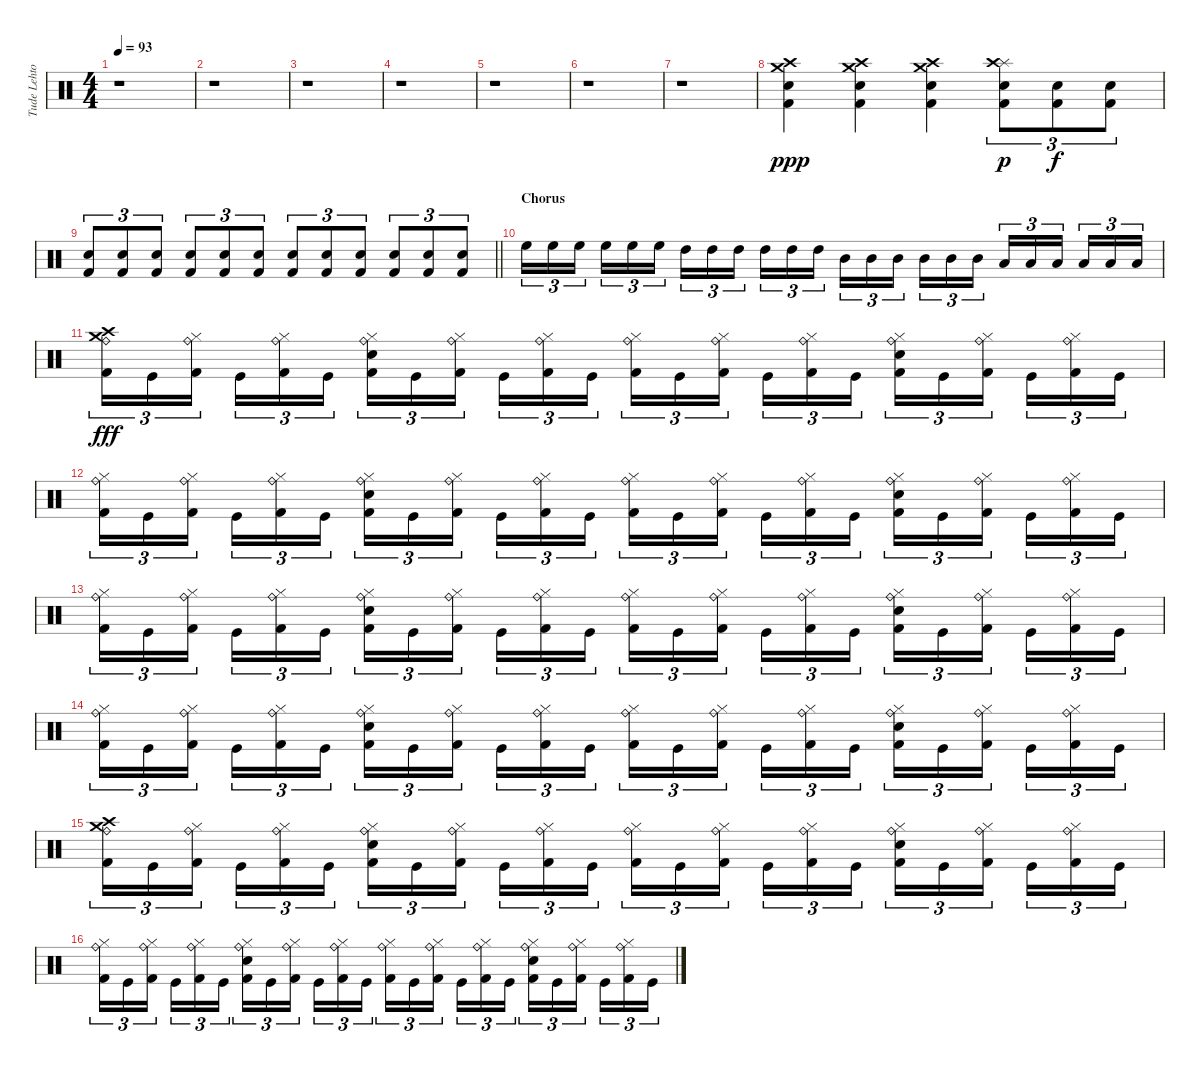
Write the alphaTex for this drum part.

\track ("Tude Lehtonen" "Tude Lehto") {instrument percussion}
\staff {score}
\articulation defaults
\ts (4 4)
\tempo 93
\clef neutral
\ks aminor
r.1{dy ppp} |
r.1 |
r.1 |
r.1 |
r.1 |
r.1 |
r.1 |
("Crash medium (hit)" "Crash high (hit)" "Electric Snare (hit)" "Kick (hit) 2").4 ("Crash medium (hit)" "Crash high (hit)" "Electric Snare (hit)" "Kick (hit) 2").4 ("Crash medium (hit)" "Crash high (hit)" "Electric Snare (hit)" "Kick (hit) 2").4 ("Splash (hit)" "Crash high (hit)" "Electric Snare (hit)" "Kick (hit) 2").8{tu (3 2) dy p} ("Electric Snare (hit)" "Kick (hit) 2").8{tu (3 2) dy f} ("Electric Snare (hit)" "Kick (hit) 2").8{tu (3 2)} |
\barLineRight lightlight
("Electric Snare (hit)" "Kick (hit) 2").8{tu (3 2)} ("Electric Snare (hit)" "Kick (hit) 2").8{tu (3 2)} ("Electric Snare (hit)" "Kick (hit) 2").8{tu (3 2)} ("Electric Snare (hit)" "Kick (hit) 2").8{tu (3 2)} ("Electric Snare (hit)" "Kick (hit) 2").8{tu (3 2)} ("Electric Snare (hit)" "Kick (hit) 2").8{tu (3 2)} ("Electric Snare (hit)" "Kick (hit) 2").8{tu (3 2)} ("Electric Snare (hit)" "Kick (hit) 2").8{tu (3 2)} ("Electric Snare (hit)" "Kick (hit) 2").8{tu (3 2)} ("Electric Snare (hit)" "Kick (hit) 2").8{tu (3 2)} ("Electric Snare (hit)" "Kick (hit) 2").8{tu (3 2)} ("Electric Snare (hit)" "Kick (hit) 2").8{tu (3 2)} |
\section ("" "Chorus")
"High Floor Tom (hit)".16{tu (3 2)} "High Floor Tom (hit)".16{tu (3 2)} "High Floor Tom (hit)".16{tu (3 2)} "High Floor Tom (hit)".16{tu (3 2)} "High Floor Tom (hit)".16{tu (3 2)} "High Floor Tom (hit)".16{tu (3 2)} "High Tom (hit)".16{tu (3 2)} "High Tom (hit)".16{tu (3 2)} "High Tom (hit)".16{tu (3 2)} "High Tom (hit)".16{tu (3 2)} "High Tom (hit)".16{tu (3 2)} "High Tom (hit)".16{tu (3 2)} "Mid Tom (hit)".16{tu (3 2)} "Mid Tom (hit)".16{tu (3 2)} "Mid Tom (hit)".16{tu (3 2)} "Mid Tom (hit)".16{tu (3 2)} "Mid Tom (hit)".16{tu (3 2)} "Mid Tom (hit)".16{tu (3 2)} "Low Tom (hit)".16{tu (3 2)} "Low Tom (hit)".16{tu (3 2)} "Low Tom (hit)".16{tu (3 2)} "Low Tom (hit)".16{tu (3 2)} "Low Tom (hit)".16{tu (3 2)} "Low Tom (hit)".16{tu (3 2)} |
("Crash high (hit)" "Crash medium (hit)" "Ride (bell)" "Kick (hit) 2").16{tu (3 2) dy fff} "Kick (hit)".16{tu (3 2)} ("Hi-Hat (closed)" "Ride (bell)" "Kick (hit) 2").16{tu (3 2)} "Kick (hit)".16{tu (3 2)} ("Hi-Hat (closed)" "Ride (bell)" "Kick (hit) 2").16{tu (3 2)} "Kick (hit)".16{tu (3 2)} ("Hi-Hat (closed)" "Ride (bell)" "Electric Snare (hit)" "Kick (hit) 2").16{tu (3 2)} "Kick (hit)".16{tu (3 2)} ("Hi-Hat (closed)" "Ride (bell)" "Kick (hit) 2").16{tu (3 2)} "Kick (hit)".16{tu (3 2)} ("Hi-Hat (closed)" "Ride (bell)" "Kick (hit) 2").16{tu (3 2)} "Kick (hit)".16{tu (3 2)} ("Hi-Hat (closed)" "Ride (bell)" "Kick (hit) 2").16{tu (3 2)} "Kick (hit)".16{tu (3 2)} ("Hi-Hat (closed)" "Ride (bell)" "Kick (hit) 2").16{tu (3 2)} "Kick (hit)".16{tu (3 2)} ("Hi-Hat (closed)" "Ride (bell)" "Kick (hit) 2").16{tu (3 2)} "Kick (hit)".16{tu (3 2)} ("Hi-Hat (closed)" "Ride (bell)" "Electric Snare (hit)" "Kick (hit) 2").16{tu (3 2)} "Kick (hit)".16{tu (3 2)} ("Hi-Hat (closed)" "Ride (bell)" "Kick (hit) 2").16{tu (3 2)} "Kick (hit)".16{tu (3 2)} ("Hi-Hat (closed)" "Ride (bell)" "Kick (hit) 2").16{tu (3 2)} "Kick (hit)".16{tu (3 2)} |
("Hi-Hat (closed)" "Ride (bell)" "Kick (hit) 2").16{tu (3 2)} "Kick (hit)".16{tu (3 2)} ("Hi-Hat (closed)" "Ride (bell)" "Kick (hit) 2").16{tu (3 2)} "Kick (hit)".16{tu (3 2)} ("Hi-Hat (closed)" "Ride (bell)" "Kick (hit) 2").16{tu (3 2)} "Kick (hit)".16{tu (3 2)} ("Hi-Hat (closed)" "Ride (bell)" "Electric Snare (hit)" "Kick (hit) 2").16{tu (3 2)} "Kick (hit)".16{tu (3 2)} ("Hi-Hat (closed)" "Ride (bell)" "Kick (hit) 2").16{tu (3 2)} "Kick (hit)".16{tu (3 2)} ("Hi-Hat (closed)" "Ride (bell)" "Kick (hit) 2").16{tu (3 2)} "Kick (hit)".16{tu (3 2)} ("Hi-Hat (closed)" "Ride (bell)" "Kick (hit) 2").16{tu (3 2)} "Kick (hit)".16{tu (3 2)} ("Hi-Hat (closed)" "Ride (bell)" "Kick (hit) 2").16{tu (3 2)} "Kick (hit)".16{tu (3 2)} ("Hi-Hat (closed)" "Ride (bell)" "Kick (hit) 2").16{tu (3 2)} "Kick (hit)".16{tu (3 2)} ("Hi-Hat (closed)" "Ride (bell)" "Electric Snare (hit)" "Kick (hit) 2").16{tu (3 2)} "Kick (hit)".16{tu (3 2)} ("Hi-Hat (closed)" "Ride (bell)" "Kick (hit) 2").16{tu (3 2)} "Kick (hit)".16{tu (3 2)} ("Hi-Hat (closed)" "Ride (bell)" "Kick (hit) 2").16{tu (3 2)} "Kick (hit)".16{tu (3 2)} |
("Hi-Hat (closed)" "Ride (bell)" "Kick (hit) 2").16{tu (3 2)} "Kick (hit)".16{tu (3 2)} ("Hi-Hat (closed)" "Ride (bell)" "Kick (hit) 2").16{tu (3 2)} "Kick (hit)".16{tu (3 2)} ("Hi-Hat (closed)" "Ride (bell)" "Kick (hit) 2").16{tu (3 2)} "Kick (hit)".16{tu (3 2)} ("Hi-Hat (closed)" "Ride (bell)" "Electric Snare (hit)" "Kick (hit) 2").16{tu (3 2)} "Kick (hit)".16{tu (3 2)} ("Hi-Hat (closed)" "Ride (bell)" "Kick (hit) 2").16{tu (3 2)} "Kick (hit)".16{tu (3 2)} ("Hi-Hat (closed)" "Ride (bell)" "Kick (hit) 2").16{tu (3 2)} "Kick (hit)".16{tu (3 2)} ("Hi-Hat (closed)" "Ride (bell)" "Kick (hit) 2").16{tu (3 2)} "Kick (hit)".16{tu (3 2)} ("Hi-Hat (closed)" "Ride (bell)" "Kick (hit) 2").16{tu (3 2)} "Kick (hit)".16{tu (3 2)} ("Hi-Hat (closed)" "Ride (bell)" "Kick (hit) 2").16{tu (3 2)} "Kick (hit)".16{tu (3 2)} ("Hi-Hat (closed)" "Ride (bell)" "Electric Snare (hit)" "Kick (hit) 2").16{tu (3 2)} "Kick (hit)".16{tu (3 2)} ("Hi-Hat (closed)" "Ride (bell)" "Kick (hit) 2").16{tu (3 2)} "Kick (hit)".16{tu (3 2)} ("Hi-Hat (closed)" "Ride (bell)" "Kick (hit) 2").16{tu (3 2)} "Kick (hit)".16{tu (3 2)} |
("Hi-Hat (closed)" "Ride (bell)" "Kick (hit) 2").16{tu (3 2)} "Kick (hit)".16{tu (3 2)} ("Hi-Hat (closed)" "Ride (bell)" "Kick (hit) 2").16{tu (3 2)} "Kick (hit)".16{tu (3 2)} ("Hi-Hat (closed)" "Ride (bell)" "Kick (hit) 2").16{tu (3 2)} "Kick (hit)".16{tu (3 2)} ("Hi-Hat (closed)" "Ride (bell)" "Electric Snare (hit)" "Kick (hit) 2").16{tu (3 2)} "Kick (hit)".16{tu (3 2)} ("Hi-Hat (closed)" "Ride (bell)" "Kick (hit) 2").16{tu (3 2)} "Kick (hit)".16{tu (3 2)} ("Hi-Hat (closed)" "Ride (bell)" "Kick (hit) 2").16{tu (3 2)} "Kick (hit)".16{tu (3 2)} ("Hi-Hat (closed)" "Ride (bell)" "Kick (hit) 2").16{tu (3 2)} "Kick (hit)".16{tu (3 2)} ("Hi-Hat (closed)" "Ride (bell)" "Kick (hit) 2").16{tu (3 2)} "Kick (hit)".16{tu (3 2)} ("Hi-Hat (closed)" "Ride (bell)" "Kick (hit) 2").16{tu (3 2)} "Kick (hit)".16{tu (3 2)} ("Hi-Hat (closed)" "Ride (bell)" "Electric Snare (hit)" "Kick (hit) 2").16{tu (3 2)} "Kick (hit)".16{tu (3 2)} ("Hi-Hat (closed)" "Ride (bell)" "Kick (hit) 2").16{tu (3 2)} "Kick (hit)".16{tu (3 2)} ("Hi-Hat (closed)" "Ride (bell)" "Kick (hit) 2").16{tu (3 2)} "Kick (hit)".16{tu (3 2)} |
("Crash high (hit)" "Crash medium (hit)" "Ride (bell)" "Kick (hit) 2").16{tu (3 2)} "Kick (hit)".16{tu (3 2)} ("Hi-Hat (closed)" "Ride (bell)" "Kick (hit) 2").16{tu (3 2)} "Kick (hit)".16{tu (3 2)} ("Hi-Hat (closed)" "Ride (bell)" "Kick (hit) 2").16{tu (3 2)} "Kick (hit)".16{tu (3 2)} ("Hi-Hat (closed)" "Ride (bell)" "Electric Snare (hit)" "Kick (hit) 2").16{tu (3 2)} "Kick (hit)".16{tu (3 2)} ("Hi-Hat (closed)" "Ride (bell)" "Kick (hit) 2").16{tu (3 2)} "Kick (hit)".16{tu (3 2)} ("Hi-Hat (closed)" "Ride (bell)" "Kick (hit) 2").16{tu (3 2)} "Kick (hit)".16{tu (3 2)} ("Hi-Hat (closed)" "Ride (bell)" "Kick (hit) 2").16{tu (3 2)} "Kick (hit)".16{tu (3 2)} ("Hi-Hat (closed)" "Ride (bell)" "Kick (hit) 2").16{tu (3 2)} "Kick (hit)".16{tu (3 2)} ("Hi-Hat (closed)" "Ride (bell)" "Kick (hit) 2").16{tu (3 2)} "Kick (hit)".16{tu (3 2)} ("Hi-Hat (closed)" "Ride (bell)" "Electric Snare (hit)" "Kick (hit) 2").16{tu (3 2)} "Kick (hit)".16{tu (3 2)} ("Hi-Hat (closed)" "Ride (bell)" "Kick (hit) 2").16{tu (3 2)} "Kick (hit)".16{tu (3 2)} ("Hi-Hat (closed)" "Ride (bell)" "Kick (hit) 2").16{tu (3 2)} "Kick (hit)".16{tu (3 2)} |
("Hi-Hat (closed)" "Ride (bell)" "Kick (hit) 2").16{tu (3 2)} "Kick (hit)".16{tu (3 2)} ("Hi-Hat (closed)" "Ride (bell)" "Kick (hit) 2").16{tu (3 2)} "Kick (hit)".16{tu (3 2)} ("Hi-Hat (closed)" "Ride (bell)" "Kick (hit) 2").16{tu (3 2)} "Kick (hit)".16{tu (3 2)} ("Hi-Hat (closed)" "Ride (bell)" "Electric Snare (hit)" "Kick (hit) 2").16{tu (3 2)} "Kick (hit)".16{tu (3 2)} ("Hi-Hat (closed)" "Ride (bell)" "Kick (hit) 2").16{tu (3 2)} "Kick (hit)".16{tu (3 2)} ("Hi-Hat (closed)" "Ride (bell)" "Kick (hit) 2").16{tu (3 2)} "Kick (hit)".16{tu (3 2)} ("Hi-Hat (closed)" "Ride (bell)" "Kick (hit) 2").16{tu (3 2)} "Kick (hit)".16{tu (3 2)} ("Hi-Hat (closed)" "Ride (bell)" "Kick (hit) 2").16{tu (3 2)} "Kick (hit)".16{tu (3 2)} ("Hi-Hat (closed)" "Ride (bell)" "Kick (hit) 2").16{tu (3 2)} "Kick (hit)".16{tu (3 2)} ("Hi-Hat (closed)" "Ride (bell)" "Electric Snare (hit)" "Kick (hit) 2").16{tu (3 2)} "Kick (hit)".16{tu (3 2)} ("Hi-Hat (closed)" "Ride (bell)" "Kick (hit) 2").16{tu (3 2)} "Kick (hit)".16{tu (3 2)} ("Hi-Hat (closed)" "Ride (bell)" "Kick (hit) 2").16{tu (3 2)} "Kick (hit)".16{tu (3 2)}
